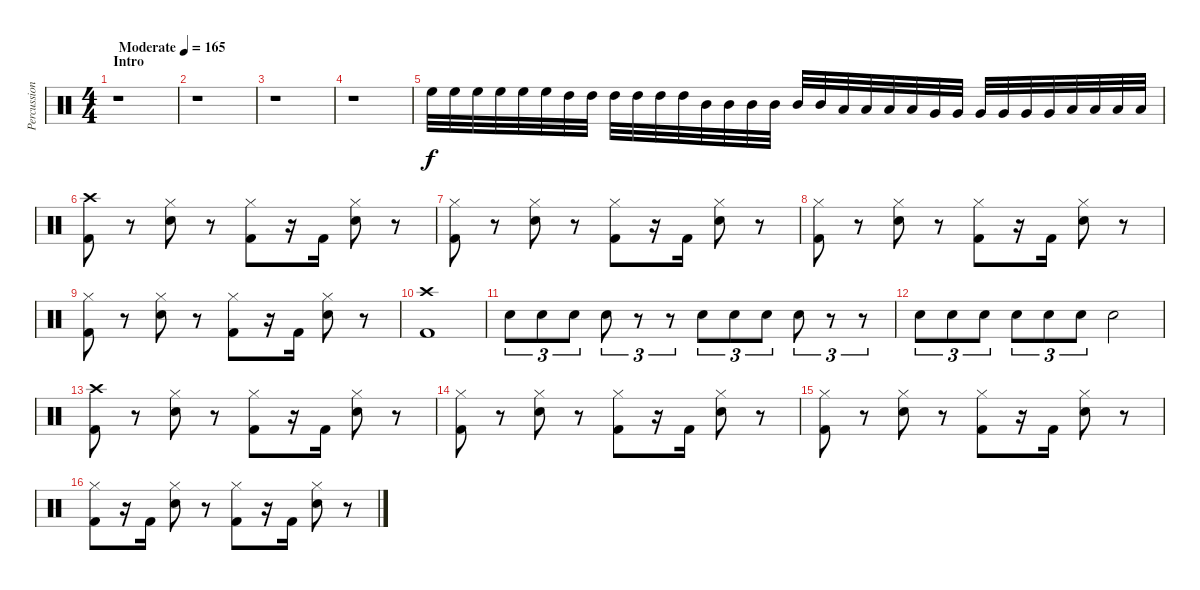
\track ("Percussion" "Percussion") {instrument percussion}
\staff {score}
\articulation defaults
\ts (4 4)
\section ("" "Intro")
\tempo (165 "Moderate")
\clef neutral
\ks c
r.1{dy f} |
r.1 |
r.1 |
r.1 |
"High Floor Tom (hit)".32 "High Floor Tom (hit)".32 "High Floor Tom (hit)".32 "High Floor Tom (hit)".32 "High Floor Tom (hit)".32 "High Floor Tom (hit)".32 "High Tom (hit)".32 "High Tom (hit)".32 "High Tom (hit)".32 "High Tom (hit)".32 "High Tom (hit)".32 "High Tom (hit)".32 "Mid Tom (hit)".32 "Mid Tom (hit)".32 "Mid Tom (hit)".32 "Mid Tom (hit)".32 "Mid Tom (hit)".32 "Mid Tom (hit)".32 "Low Tom (hit)".32 "Low Tom (hit)".32 "Low Tom (hit)".32 "Low Tom (hit)".32 "Very Low Tom (hit)".32 "Very Low Tom (hit)".32 "Very Low Tom (hit)".32 "Very Low Tom (hit)".32 "Very Low Tom (hit)".32 "Very Low Tom (hit)".32 "Low Floor Tom (hit)".32 "Low Floor Tom (hit)".32 "Low Floor Tom (hit)".32 "Low Floor Tom (hit)".32 |
("Crash high (hit)" "Kick (hit) 2").8 r.8 ("Hi-Hat (closed)" "Snare (hit) 2").8 r.8 ("Hi-Hat (closed)" "Kick (hit) 2").8 r.16 "Kick (hit) 2".16 ("Hi-Hat (closed)" "Snare (hit) 2").8 r.8 |
("Hi-Hat (closed)" "Kick (hit) 2").8 r.8 ("Hi-Hat (closed)" "Snare (hit) 2").8 r.8 ("Hi-Hat (closed)" "Kick (hit) 2").8 r.16 "Kick (hit) 2".16 ("Hi-Hat (closed)" "Snare (hit) 2").8 r.8 |
("Hi-Hat (closed)" "Kick (hit) 2").8 r.8 ("Hi-Hat (closed)" "Snare (hit) 2").8 r.8 ("Hi-Hat (closed)" "Kick (hit) 2").8 r.16 "Kick (hit) 2".16 ("Hi-Hat (closed)" "Snare (hit) 2").8 r.8 |
("Hi-Hat (closed)" "Kick (hit) 2").8 r.8 ("Hi-Hat (closed)" "Snare (hit) 2").8 r.8 ("Hi-Hat (closed)" "Kick (hit) 2").8 r.16 "Kick (hit) 2".16 ("Hi-Hat (closed)" "Snare (hit) 2").8 r.8 |
("Crash high (hit)" "Kick (hit) 2").1 |
"Snare (hit) 2".8{tu (3 2)} "Snare (hit) 2".8{tu (3 2)} "Snare (hit) 2".8{tu (3 2)} "Snare (hit) 2".8{tu (3 2)} r.8{tu (3 2)} r.8{tu (3 2)} "Snare (hit) 2".8{tu (3 2)} "Snare (hit) 2".8{tu (3 2)} "Snare (hit) 2".8{tu (3 2)} "Snare (hit) 2".8{tu (3 2)} r.8{tu (3 2)} r.8{tu (3 2)} |
"Snare (hit) 2".8{tu (3 2)} "Snare (hit) 2".8{tu (3 2)} "Snare (hit) 2".8{tu (3 2)} "Snare (hit) 2".8{tu (3 2)} "Snare (hit) 2".8{tu (3 2)} "Snare (hit) 2".8{tu (3 2)} "Snare (hit) 2".2 |
("Crash high (hit)" "Kick (hit) 2").8 r.8 ("Hi-Hat (closed)" "Snare (hit) 2").8 r.8 ("Hi-Hat (closed)" "Kick (hit) 2").8 r.16 "Kick (hit) 2".16 ("Hi-Hat (closed)" "Snare (hit) 2").8 r.8 |
("Hi-Hat (closed)" "Kick (hit) 2").8 r.8 ("Hi-Hat (closed)" "Snare (hit) 2").8 r.8 ("Hi-Hat (closed)" "Kick (hit) 2").8 r.16 "Kick (hit) 2".16 ("Hi-Hat (closed)" "Snare (hit) 2").8 r.8 |
("Hi-Hat (closed)" "Kick (hit) 2").8 r.8 ("Hi-Hat (closed)" "Snare (hit) 2").8 r.8 ("Hi-Hat (closed)" "Kick (hit) 2").8 r.16 "Kick (hit) 2".16 ("Hi-Hat (closed)" "Snare (hit) 2").8 r.8 |
("Hi-Hat (closed)" "Kick (hit) 2").8 r.16 "Kick (hit) 2".16 ("Hi-Hat (closed)" "Snare (hit) 2").8 r.8 ("Hi-Hat (closed)" "Kick (hit) 2").8 r.16 "Kick (hit) 2".16 ("Hi-Hat (closed)" "Snare (hit) 2").8 r.8
